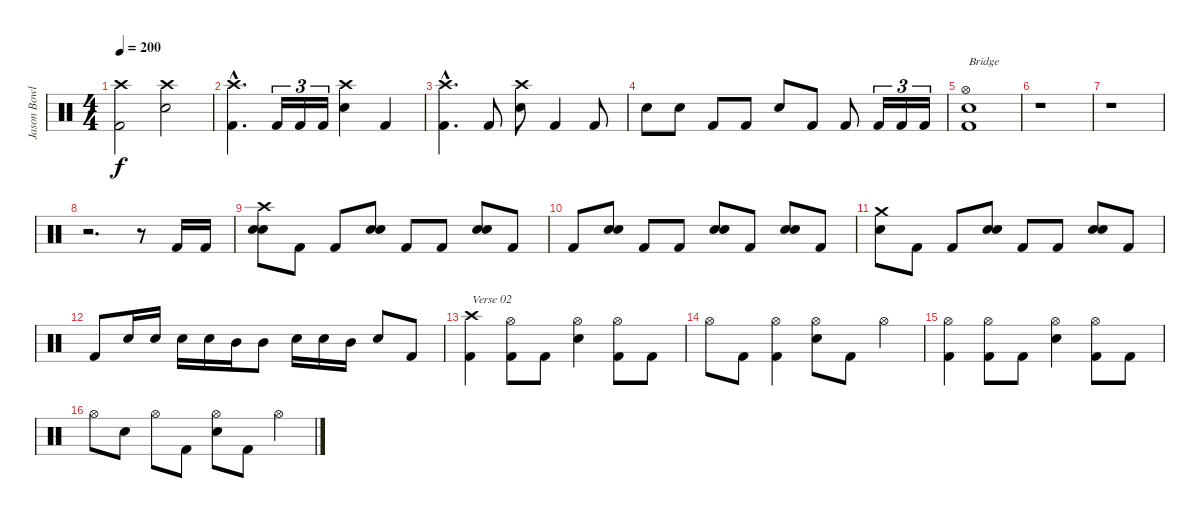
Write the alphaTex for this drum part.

\track ("Jason Bowld" "Jason Bowl") {instrument percussion}
\staff {score}
\articulation defaults
\ts (4 4)
\tempo 200
\clef neutral
\ks c
("Crash high (hit)" "Kick (hit) 2").2{dy f} ("Crash high (hit)" "Snare (hit) 2").2 |
("Crash high (hit)"{hac} "Kick (hit) 2"{hac}).4{d} "Kick (hit) 2".16{tu (3 2)} "Kick (hit) 2".16{tu (3 2)} "Kick (hit) 2".16{tu (3 2)} ("Crash high (hit)" "Snare (hit) 2").4 "Kick (hit) 2".4 |
("Crash high (hit)"{hac} "Kick (hit) 2"{hac}).4{d} "Kick (hit) 2".8 ("Crash high (hit)" "Snare (hit) 2").8 "Kick (hit) 2".4 "Kick (hit) 2".8 |
"Snare (hit) 2".8 "Snare (hit) 2".8 "Kick (hit) 2".8 "Kick (hit) 2".8 "Snare (hit) 2".8 "Kick (hit) 2".8 "Kick (hit) 2".8 "Kick (hit) 2".16{tu (3 2)} "Kick (hit) 2".16{tu (3 2)} "Kick (hit) 2".16{tu (3 2)} |
("Hi-Hat (open)" "Snare (hit) 2" "Kick (hit) 2").1{txt "Bridge"} |
r.1 |
r.1 |
r.2{d} r.8 "Kick (hit) 2".16 "Kick (hit) 2".16 |
("Crash high (hit)" "Snare (hit) 2" "Snare (hit) 2").8 "Kick (hit) 2".8 "Kick (hit) 2".8 ("Snare (hit) 2" "Snare (hit) 2").8 "Kick (hit) 2".8 "Kick (hit) 2".8 ("Snare (hit) 2" "Snare (hit) 2").8 "Kick (hit) 2".8 |
"Kick (hit) 2".8 ("Snare (hit) 2" "Snare (hit) 2").8 "Kick (hit) 2".8 "Kick (hit) 2".8 ("Snare (hit) 2" "Snare (hit) 2").8 "Kick (hit) 2".8 ("Snare (hit) 2" "Snare (hit) 2").8 "Kick (hit) 2".8 |
("Crash medium (hit)" "Snare (hit) 2").8 "Kick (hit) 2".8 "Kick (hit) 2".8 ("Snare (hit) 2" "Snare (hit) 2").8 "Kick (hit) 2".8 "Kick (hit) 2".8 ("Snare (hit) 2" "Snare (hit) 2").8 "Kick (hit) 2".8 |
"Kick (hit) 2".8 "Snare (hit) 2".16 "Snare (hit) 2".16 "Snare (hit) 2".16 "Snare (hit) 2".16 "Mid Tom (hit)".16 "Mid Tom (hit)".8 "Snare (hit) 2".16 "Snare (hit) 2".16 "Mid Tom (hit)".16 "Snare (hit) 2".8 "Kick (hit) 2".8 |
("Crash high (hit)" "Kick (hit) 2").4{txt "Verse 02"} ("Hi-Hat (open)" "Kick (hit) 2").8 "Kick (hit) 2".8 ("Hi-Hat (open)" "Snare (hit) 2").4 ("Hi-Hat (open)" "Kick (hit) 2").8 "Kick (hit) 2".8 |
"Hi-Hat (open)".8 "Kick (hit) 2".8 ("Hi-Hat (open)" "Kick (hit) 2").4 ("Hi-Hat (open)" "Snare (hit) 2").8 "Kick (hit) 2".8 "Hi-Hat (open)".4 |
("Hi-Hat (open)" "Kick (hit) 2").4 ("Hi-Hat (open)" "Kick (hit) 2").8 "Kick (hit) 2".8 ("Hi-Hat (open)" "Snare (hit) 2").4 ("Hi-Hat (open)" "Kick (hit) 2").8 "Kick (hit) 2".8 |
"Hi-Hat (open)".8 "Snare (hit) 2".8 "Hi-Hat (open)".8 "Kick (hit) 2".8 ("Hi-Hat (open)" "Snare (hit) 2").8 "Kick (hit) 2".8 "Hi-Hat (open)".4
